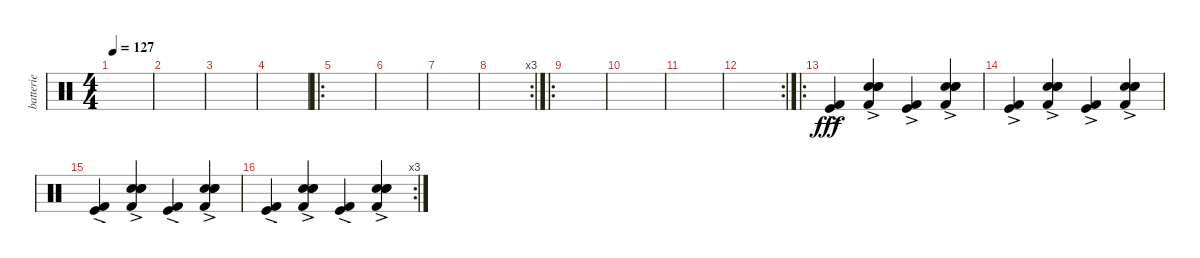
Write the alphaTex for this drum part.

\track ("batterie" "batterie") {instrument percussion}
\staff {score}
\articulation defaults
\ts (4 4)
\tempo 127
\clef neutral
\ks c
|
|
|
|
\ro
|
|
|
\rc 3
|
\ro
|
|
|
\rc 2
|
\ro
("Kick (hit) 2" "Kick (hit)"{ac}).4{dy fff} ("Hand Clap (hit)"{ac} "Kick (hit) 2" "Electric Snare (hit)" "Snare (hit) 2").4 ("Kick (hit) 2" "Kick (hit)"{ac}).4 ("Hand Clap (hit)"{ac} "Kick (hit) 2" "Electric Snare (hit)" "Snare (hit) 2").4 |
("Kick (hit) 2" "Kick (hit)"{ac}).4 ("Hand Clap (hit)"{ac} "Kick (hit) 2" "Electric Snare (hit)" "Snare (hit) 2").4 ("Kick (hit) 2" "Kick (hit)"{ac}).4 ("Hand Clap (hit)"{ac} "Kick (hit) 2" "Electric Snare (hit)" "Snare (hit) 2").4 |
("Kick (hit) 2" "Kick (hit)"{ac}).4 ("Hand Clap (hit)"{ac} "Kick (hit) 2" "Electric Snare (hit)" "Snare (hit) 2").4 ("Kick (hit) 2" "Kick (hit)"{ac}).4 ("Hand Clap (hit)"{ac} "Kick (hit) 2" "Electric Snare (hit)" "Snare (hit) 2").4 |
\rc 3
("Kick (hit) 2" "Kick (hit)"{ac}).4 ("Hand Clap (hit)"{ac} "Kick (hit) 2" "Electric Snare (hit)" "Snare (hit) 2").4 ("Kick (hit) 2" "Kick (hit)"{ac}).4 ("Hand Clap (hit)"{ac} "Kick (hit) 2" "Electric Snare (hit)" "Snare (hit) 2").4
